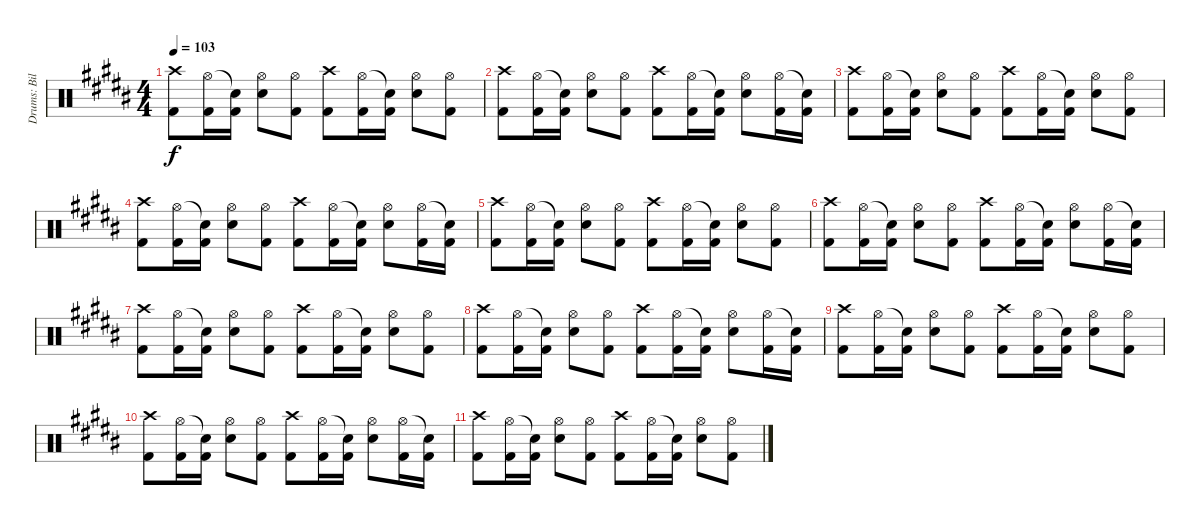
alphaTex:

\track ("Drums: Bill" "Drums: Bil") {instrument percussion}
\staff {score}
\articulation defaults
\ts (4 4)
\tempo 103
\clef neutral
\ks b
("Crash high (hit)" "Kick (hit) 2").8{dy f} ("Hi-Hat (open)" "Kick (hit) 2").16 ("Snare (hit)"{t} "Kick (hit) 2").16 ("Hi-Hat (open)" "Electric Snare (hit)").8 ("Hi-Hat (open)" "Kick (hit) 2").8 ("Crash high (hit)" "Kick (hit) 2").8 ("Hi-Hat (open)" "Kick (hit) 2").16 ("Snare (hit)"{t} "Kick (hit) 2").16 ("Hi-Hat (open)" "Electric Snare (hit)").8 ("Hi-Hat (open)" "Kick (hit) 2").8 |
("Crash high (hit)" "Kick (hit) 2").8 ("Hi-Hat (open)" "Kick (hit) 2").16 ("Snare (hit)"{t} "Kick (hit) 2").16 ("Hi-Hat (open)" "Electric Snare (hit)").8 ("Hi-Hat (open)" "Kick (hit) 2").8 ("Crash high (hit)" "Kick (hit) 2").8 ("Hi-Hat (open)" "Kick (hit) 2").16 ("Snare (hit)"{t} "Kick (hit) 2").16 ("Hi-Hat (open)" "Electric Snare (hit)").8 ("Hi-Hat (open)" "Kick (hit) 2").16 ("Snare (hit)"{t} "Kick (hit) 2").16 |
("Crash high (hit)" "Kick (hit) 2").8 ("Hi-Hat (open)" "Kick (hit) 2").16 ("Snare (hit)"{t} "Kick (hit) 2").16 ("Hi-Hat (open)" "Electric Snare (hit)").8 ("Hi-Hat (open)" "Kick (hit) 2").8 ("Crash high (hit)" "Kick (hit) 2").8 ("Hi-Hat (open)" "Kick (hit) 2").16 ("Snare (hit)"{t} "Kick (hit) 2").16 ("Hi-Hat (open)" "Electric Snare (hit)").8 ("Hi-Hat (open)" "Kick (hit) 2").8 |
("Crash high (hit)" "Kick (hit) 2").8 ("Hi-Hat (open)" "Kick (hit) 2").16 ("Snare (hit)"{t} "Kick (hit) 2").16 ("Hi-Hat (open)" "Electric Snare (hit)").8 ("Hi-Hat (open)" "Kick (hit) 2").8 ("Crash high (hit)" "Kick (hit) 2").8 ("Hi-Hat (open)" "Kick (hit) 2").16 ("Snare (hit)"{t} "Kick (hit) 2").16 ("Hi-Hat (open)" "Electric Snare (hit)").8 ("Hi-Hat (open)" "Kick (hit) 2").16 ("Snare (hit)"{t} "Kick (hit) 2").16 |
("Crash high (hit)" "Kick (hit) 2").8 ("Hi-Hat (open)" "Kick (hit) 2").16 ("Snare (hit)"{t} "Kick (hit) 2").16 ("Hi-Hat (open)" "Electric Snare (hit)").8 ("Hi-Hat (open)" "Kick (hit) 2").8 ("Crash high (hit)" "Kick (hit) 2").8 ("Hi-Hat (open)" "Kick (hit) 2").16 ("Snare (hit)"{t} "Kick (hit) 2").16 ("Hi-Hat (open)" "Electric Snare (hit)").8 ("Hi-Hat (open)" "Kick (hit) 2").8 |
("Crash high (hit)" "Kick (hit) 2").8 ("Hi-Hat (open)" "Kick (hit) 2").16 ("Snare (hit)"{t} "Kick (hit) 2").16 ("Hi-Hat (open)" "Electric Snare (hit)").8 ("Hi-Hat (open)" "Kick (hit) 2").8 ("Crash high (hit)" "Kick (hit) 2").8 ("Hi-Hat (open)" "Kick (hit) 2").16 ("Snare (hit)"{t} "Kick (hit) 2").16 ("Hi-Hat (open)" "Electric Snare (hit)").8 ("Hi-Hat (open)" "Kick (hit) 2").16 ("Snare (hit)"{t} "Kick (hit) 2").16 |
("Crash high (hit)" "Kick (hit) 2").8 ("Hi-Hat (open)" "Kick (hit) 2").16 ("Snare (hit)"{t} "Kick (hit) 2").16 ("Hi-Hat (open)" "Electric Snare (hit)").8 ("Hi-Hat (open)" "Kick (hit) 2").8 ("Crash high (hit)" "Kick (hit) 2").8 ("Hi-Hat (open)" "Kick (hit) 2").16 ("Snare (hit)"{t} "Kick (hit) 2").16 ("Hi-Hat (open)" "Electric Snare (hit)").8 ("Hi-Hat (open)" "Kick (hit) 2").8 |
("Crash high (hit)" "Kick (hit) 2").8 ("Hi-Hat (open)" "Kick (hit) 2").16 ("Snare (hit)"{t} "Kick (hit) 2").16 ("Hi-Hat (open)" "Electric Snare (hit)").8 ("Hi-Hat (open)" "Kick (hit) 2").8 ("Crash high (hit)" "Kick (hit) 2").8 ("Hi-Hat (open)" "Kick (hit) 2").16 ("Snare (hit)"{t} "Kick (hit) 2").16 ("Hi-Hat (open)" "Electric Snare (hit)").8 ("Hi-Hat (open)" "Kick (hit) 2").16 ("Snare (hit)"{t} "Kick (hit) 2").16 |
("Crash high (hit)" "Kick (hit) 2").8 ("Hi-Hat (open)" "Kick (hit) 2").16 ("Snare (hit)"{t} "Kick (hit) 2").16 ("Hi-Hat (open)" "Electric Snare (hit)").8 ("Hi-Hat (open)" "Kick (hit) 2").8 ("Crash high (hit)" "Kick (hit) 2").8 ("Hi-Hat (open)" "Kick (hit) 2").16 ("Snare (hit)"{t} "Kick (hit) 2").16 ("Hi-Hat (open)" "Electric Snare (hit)").8 ("Hi-Hat (open)" "Kick (hit) 2").8 |
("Crash high (hit)" "Kick (hit) 2").8 ("Hi-Hat (open)" "Kick (hit) 2").16 ("Snare (hit)"{t} "Kick (hit) 2").16 ("Hi-Hat (open)" "Electric Snare (hit)").8 ("Hi-Hat (open)" "Kick (hit) 2").8 ("Crash high (hit)" "Kick (hit) 2").8 ("Hi-Hat (open)" "Kick (hit) 2").16 ("Snare (hit)"{t} "Kick (hit) 2").16 ("Hi-Hat (open)" "Electric Snare (hit)").8 ("Hi-Hat (open)" "Kick (hit) 2").16 ("Snare (hit)"{t} "Kick (hit) 2").16 |
("Crash high (hit)" "Kick (hit) 2").8 ("Hi-Hat (open)" "Kick (hit) 2").16 ("Snare (hit)"{t} "Kick (hit) 2").16 ("Hi-Hat (open)" "Electric Snare (hit)").8 ("Hi-Hat (open)" "Kick (hit) 2").8 ("Crash high (hit)" "Kick (hit) 2").8 ("Hi-Hat (open)" "Kick (hit) 2").16 ("Snare (hit)"{t} "Kick (hit) 2").16 ("Hi-Hat (open)" "Electric Snare (hit)").8 ("Hi-Hat (open)" "Kick (hit) 2").8
